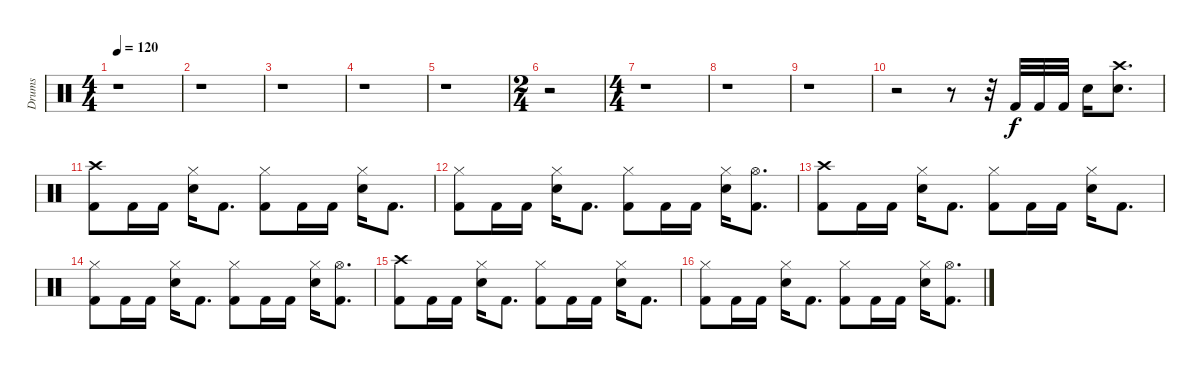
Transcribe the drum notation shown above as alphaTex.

\track ("Drums" "Drums") {instrument percussion}
\staff {score}
\articulation defaults
\ts (4 4)
\tempo 120
\clef neutral
\ks c
r.1{dy f} |
r.1 |
r.1 |
r.1 |
r.1 |
\ts (2 4)
r.2 |
\ts (4 4)
r.1 |
r.1 |
r.1 |
r.2 r.8 r.32 "Kick (hit) 2".32 "Kick (hit) 2".32 "Kick (hit) 2".32 "Electric Snare (hit)".16 ("Crash high (hit)" "Snare (hit) 2").8{d} |
("Crash high (hit)" "Kick (hit) 2").8 "Kick (hit) 2".16 "Kick (hit) 2".16 ("Hi-Hat (closed)" "Snare (hit) 2").16 "Kick (hit) 2".8{d} ("Hi-Hat (closed)" "Kick (hit) 2").8 "Kick (hit) 2".16 "Kick (hit) 2".16 ("Hi-Hat (closed)" "Snare (hit) 2").16 "Kick (hit) 2".8{d} |
("Hi-Hat (closed)" "Kick (hit) 2").8 "Kick (hit) 2".16 "Kick (hit) 2".16 ("Hi-Hat (closed)" "Snare (hit) 2").16 "Kick (hit) 2".8{d} ("Hi-Hat (closed)" "Kick (hit) 2").8 "Kick (hit) 2".16 "Kick (hit) 2".16 ("Hi-Hat (closed)" "Snare (hit) 2").16 ("Hi-Hat (open)" "Kick (hit) 2").8{d} |
("Crash high (hit)" "Kick (hit) 2").8 "Kick (hit) 2".16 "Kick (hit) 2".16 ("Hi-Hat (closed)" "Snare (hit) 2").16 "Kick (hit) 2".8{d} ("Hi-Hat (closed)" "Kick (hit) 2").8 "Kick (hit) 2".16 "Kick (hit) 2".16 ("Hi-Hat (closed)" "Snare (hit) 2").16 "Kick (hit) 2".8{d} |
("Hi-Hat (closed)" "Kick (hit) 2").8 "Kick (hit) 2".16 "Kick (hit) 2".16 ("Hi-Hat (closed)" "Snare (hit) 2").16 "Kick (hit) 2".8{d} ("Hi-Hat (closed)" "Kick (hit) 2").8 "Kick (hit) 2".16 "Kick (hit) 2".16 ("Hi-Hat (closed)" "Snare (hit) 2").16 ("Hi-Hat (open)" "Kick (hit) 2").8{d} |
("Crash high (hit)" "Kick (hit) 2").8 "Kick (hit) 2".16 "Kick (hit) 2".16 ("Hi-Hat (closed)" "Snare (hit) 2").16 "Kick (hit) 2".8{d} ("Hi-Hat (closed)" "Kick (hit) 2").8 "Kick (hit) 2".16 "Kick (hit) 2".16 ("Hi-Hat (closed)" "Snare (hit) 2").16 "Kick (hit) 2".8{d} |
("Hi-Hat (closed)" "Kick (hit) 2").8 "Kick (hit) 2".16 "Kick (hit) 2".16 ("Hi-Hat (closed)" "Snare (hit) 2").16 "Kick (hit) 2".8{d} ("Hi-Hat (closed)" "Kick (hit) 2").8 "Kick (hit) 2".16 "Kick (hit) 2".16 ("Hi-Hat (closed)" "Snare (hit) 2").16 ("Hi-Hat (open)" "Kick (hit) 2").8{d}
